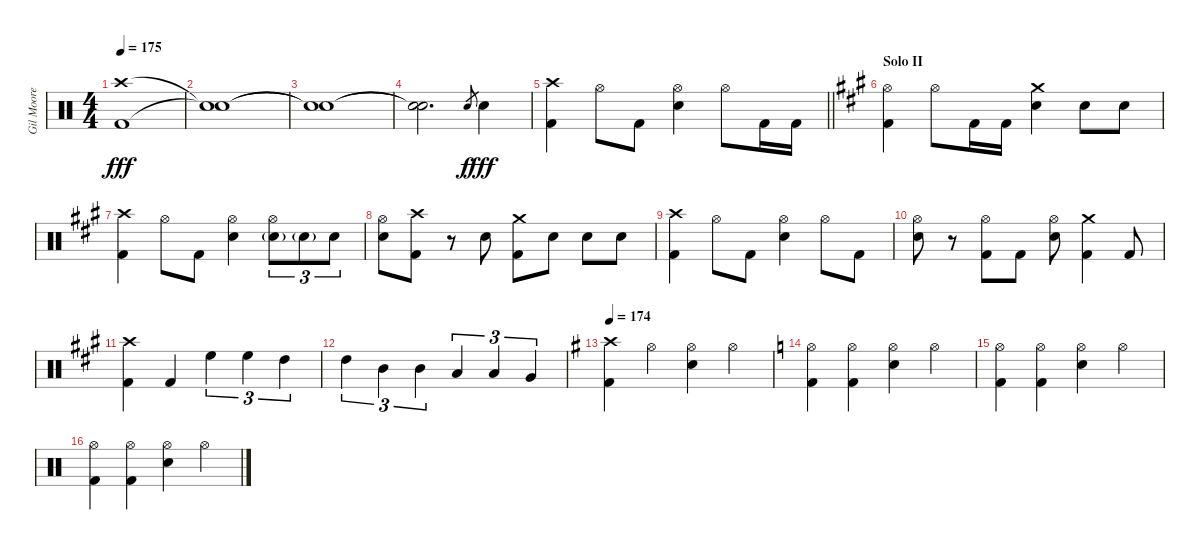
\track ("Gil Moore" "Gil Moore") {instrument percussion}
\staff {score}
\articulation defaults
\ts (4 4)
\tempo 175
\clef neutral
\ks c
("Crash high (hit)" "Kick (hit) 2").1{dy fff} |
("Snare (hit)"{t} "Snare (hit)"{t}).1 |
("Snare (hit)"{t} "Snare (hit)"{t}).1 |
("Snare (hit)"{t} "Snare (hit)"{t}).2{d} "Snare (hit) 2".8{gr dy f} "Snare (hit) 2".4{dy fff} |
\barLineRight lightlight
("Crash high (hit)" "Kick (hit) 2").4 "Hi-Hat (open)".8 "Kick (hit) 2".8 ("Hi-Hat (open)" "Snare (hit) 2").4 "Hi-Hat (open)".8 "Kick (hit) 2".16 "Kick (hit) 2".16 |
\section ("" "Solo II")
\ks a
("Hi-Hat (open)" "Kick (hit) 2").4 "Hi-Hat (open)".8 "Kick (hit) 2".16 "Kick (hit) 2".16 ("Crash medium (hit)" "Snare (hit) 2").4 "Snare (hit) 2".8 "Snare (hit) 2".8 |
("Crash high (hit)" "Kick (hit) 2").4 "Hi-Hat (open)".8 "Kick (hit) 2".8 ("Hi-Hat (open)" "Snare (hit) 2").4 ("Hi-Hat (open)" "Snare (hit) 2"{g}).8{tu (3 2)} "Snare (hit) 2"{g}.8{tu (3 2)} "Snare (hit) 2".8{tu (3 2)} |
("Hi-Hat (open)" "Snare (hit) 2").8 ("Crash high (hit)" "Kick (hit) 2").8 r.8 "Snare (hit) 2".8 ("Crash medium (hit)" "Kick (hit) 2").8 "Snare (hit) 2".8 "Snare (hit) 2".8 "Snare (hit) 2".8 |
("Crash high (hit)" "Kick (hit) 2").4 "Hi-Hat (open)".8 "Kick (hit) 2".8 ("Hi-Hat (open)" "Snare (hit) 2").4 "Hi-Hat (open)".8 "Kick (hit) 2".8 |
("Hi-Hat (open)" "Snare (hit) 2").8 r.8 ("Hi-Hat (open)" "Kick (hit) 2").8 "Kick (hit) 2".8 ("Hi-Hat (open)" "Snare (hit) 2").8 ("Crash medium (hit)" "Kick (hit) 2").4 "Kick (hit) 2".8 |
("Crash high (hit)" "Kick (hit) 2").4 "Kick (hit) 2".4 "High Floor Tom (hit)".4{tu (3 2)} "High Floor Tom (hit)".4{tu (3 2)} "High Tom (hit)".4{tu (3 2)} |
"High Tom (hit)".4{tu (3 2)} "Mid Tom (hit)".4{tu (3 2)} "Mid Tom (hit)".4{tu (3 2)} "Low Tom (hit)".4{tu (3 2)} "Low Tom (hit)".4{tu (3 2)} "Very Low Tom (hit)".4{tu (3 2)} |
\tempo 174
\ks g
("Crash high (hit)" "Kick (hit) 2").4 "Hi-Hat (open)".4 ("Hi-Hat (open)" "Snare (hit) 2").4 "Hi-Hat (open)".4 |
\ks c
("Hi-Hat (open)" "Kick (hit) 2").4 ("Hi-Hat (open)" "Kick (hit) 2").4 ("Hi-Hat (open)" "Snare (hit) 2").4 "Hi-Hat (open)".4 |
("Hi-Hat (open)" "Kick (hit) 2").4 ("Hi-Hat (open)" "Kick (hit) 2").4 ("Hi-Hat (open)" "Snare (hit) 2").4 "Hi-Hat (open)".4 |
("Hi-Hat (open)" "Kick (hit) 2").4 ("Hi-Hat (open)" "Kick (hit) 2").4 ("Hi-Hat (open)" "Snare (hit) 2").4 "Hi-Hat (open)".4
